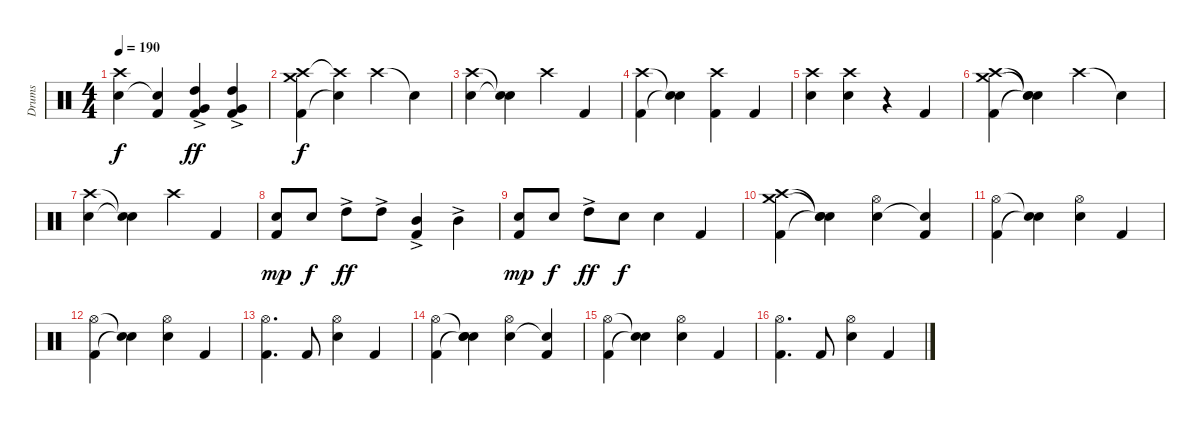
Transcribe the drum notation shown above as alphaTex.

\track ("Drums" "Drums") {instrument percussion}
\staff {score}
\articulation defaults
\ts (4 4)
\tempo 190
\clef neutral
\ks c
("Crash high (hit)" "Snare (hit) 2").4{dy f} ("Kick (hit) 2" "Snare (hit)"{t}).4 ("Kick (hit) 2" "High Tom (hit)"{ac} "Very Low Tom (hit)"{ac}).4{dy ff} ("Kick (hit) 2" "High Tom (hit)"{ac} "Very Low Tom (hit)"{ac}).4 |
("Crash high (hit)" "Kick (hit) 2" "Crash medium (hit)").4{dy f} ("Crash high (hit)"{t} "Snare (hit)"{t}).4 "Crash high (hit)".4 "Snare (hit)"{t}.4 |
("Snare (hit) 2" "Crash high (hit)").4 ("Snare (hit)"{t} "Snare (hit)"{t}).4 "Crash high (hit)".4 "Kick (hit) 2".4 |
("Crash high (hit)" "Kick (hit) 2").4 ("Snare (hit)"{t} "Snare (hit)"{t}).4 ("Crash high (hit)" "Kick (hit) 2").4 "Kick (hit) 2".4 |
("Crash high (hit)" "Snare (hit) 2").4 ("Crash high (hit)" "Snare (hit) 2").4 r.4 "Kick (hit) 2".4 |
("Crash high (hit)" "Crash medium (hit)" "Kick (hit) 2").4 ("Snare (hit)"{t} "Snare (hit)"{t} "Snare (hit)"{t}).4 "Crash high (hit)".4 "Snare (hit)"{t}.4 |
("Crash high (hit)" "Snare (hit) 2").4 ("Snare (hit)"{t} "Snare (hit)"{t}).4 "Crash high (hit)".4 "Kick (hit) 2".4 |
("Kick (hit) 2" "Snare (hit) 2").8{dy mp} "Snare (hit) 2".8{dy f} "High Tom (hit)"{ac}.8{dy ff} "High Tom (hit)"{ac}.8 ("Mid Tom (hit)"{ac} "Kick (hit) 2").4 "Mid Tom (hit)"{ac}.4 |
("Snare (hit) 2" "Kick (hit) 2").8{dy mp} "Snare (hit) 2".8{dy f} "High Tom (hit)"{ac}.8{dy ff} "Snare (hit) 2".8{dy f} "Snare (hit) 2".4 "Kick (hit) 2".4 |
("Crash high (hit)" "Crash medium (hit)" "Kick (hit) 2").4 ("Snare (hit)"{t} "Snare (hit)"{t} "Snare (hit)"{t}).4 ("Hi-Hat (open)" "Snare (hit) 2").4 ("Kick (hit) 2" "Snare (hit)"{t}).4 |
("Hi-Hat (open)" "Kick (hit) 2").4 ("Snare (hit)"{t} "Snare (hit)"{t}).4 ("Hi-Hat (open)" "Snare (hit) 2").4 "Kick (hit) 2".4 |
("Hi-Hat (open)" "Kick (hit) 2").4 ("Snare (hit)"{t} "Snare (hit)"{t}).4 ("Hi-Hat (open)" "Snare (hit) 2").4 "Kick (hit) 2".4 |
("Hi-Hat (open)" "Kick (hit) 2").4{d} "Kick (hit) 2".8 ("Hi-Hat (open)" "Snare (hit) 2").4 "Kick (hit) 2".4 |
("Hi-Hat (open)" "Kick (hit) 2").4 ("Snare (hit)"{t} "Snare (hit)"{t} "Snare (hit)").4 ("Hi-Hat (open)" "Snare (hit) 2").4 ("Kick (hit) 2" "Snare (hit)"{t}).4 |
("Hi-Hat (open)" "Kick (hit) 2").4 ("Snare (hit)"{t} "Snare (hit)"{t}).4 ("Hi-Hat (open)" "Snare (hit) 2").4 "Kick (hit) 2".4 |
("Hi-Hat (open)" "Kick (hit) 2").4{d} "Kick (hit) 2".8 ("Hi-Hat (open)" "Snare (hit) 2").4 "Kick (hit) 2".4
